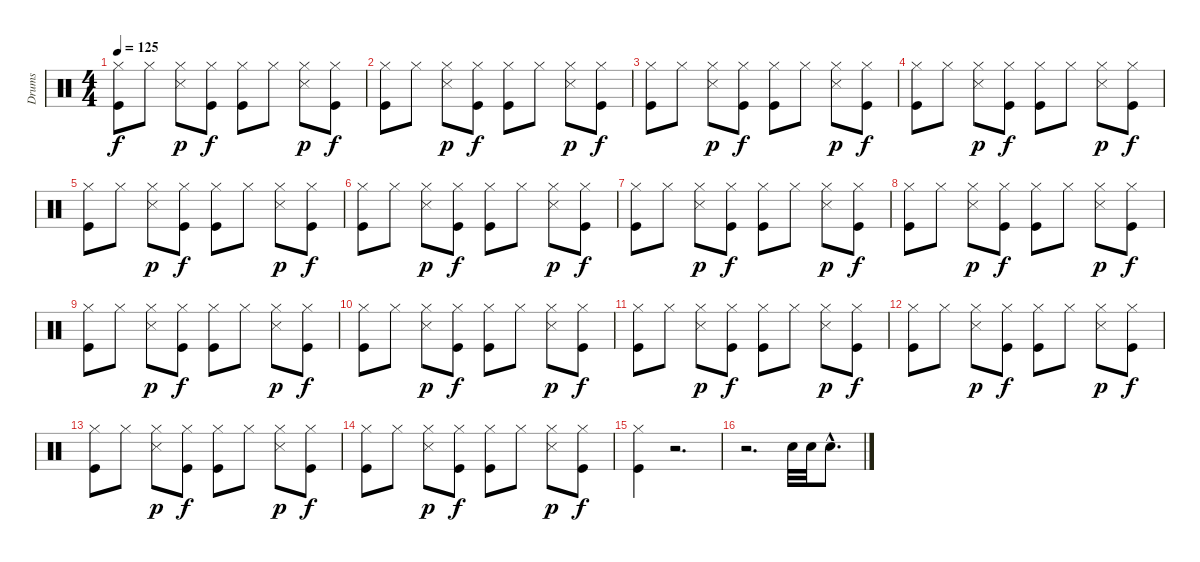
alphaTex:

\track ("Drums" "Drums") {instrument percussion}
\staff {score}
\articulation defaults
\ts (4 4)
\tempo 125
\clef neutral
\ks c
("Kick (hit)" "Hi-Hat (closed)").8{dy f} "Hi-Hat (closed)".8 ("Hi-Hat (closed)" "Snare (side stick) 3").8{dy p} ("Hi-Hat (closed)" "Kick (hit)").8{dy f} ("Hi-Hat (closed)" "Kick (hit)").8 "Hi-Hat (closed)".8 ("Hi-Hat (closed)" "Snare (side stick) 3").8{dy p} ("Hi-Hat (closed)" "Kick (hit)").8{dy f} |
("Kick (hit)" "Hi-Hat (closed)").8 "Hi-Hat (closed)".8 ("Hi-Hat (closed)" "Snare (side stick) 3").8{dy p} ("Hi-Hat (closed)" "Kick (hit)").8{dy f} ("Hi-Hat (closed)" "Kick (hit)").8 "Hi-Hat (closed)".8 ("Hi-Hat (closed)" "Snare (side stick) 3").8{dy p} ("Hi-Hat (closed)" "Kick (hit)").8{dy f} |
("Kick (hit)" "Hi-Hat (closed)").8 "Hi-Hat (closed)".8 ("Hi-Hat (closed)" "Snare (side stick) 3").8{dy p} ("Hi-Hat (closed)" "Kick (hit)").8{dy f} ("Hi-Hat (closed)" "Kick (hit)").8 "Hi-Hat (closed)".8 ("Hi-Hat (closed)" "Snare (side stick) 3").8{dy p} ("Hi-Hat (closed)" "Kick (hit)").8{dy f} |
("Kick (hit)" "Hi-Hat (closed)").8 "Hi-Hat (closed)".8 ("Hi-Hat (closed)" "Snare (side stick) 3").8{dy p} ("Hi-Hat (closed)" "Kick (hit)").8{dy f} ("Hi-Hat (closed)" "Kick (hit)").8 "Hi-Hat (closed)".8 ("Hi-Hat (closed)" "Snare (side stick) 3").8{dy p} ("Hi-Hat (closed)" "Kick (hit)").8{dy f} |
("Kick (hit)" "Hi-Hat (closed)").8 "Hi-Hat (closed)".8 ("Hi-Hat (closed)" "Snare (side stick) 3").8{dy p} ("Hi-Hat (closed)" "Kick (hit)").8{dy f} ("Hi-Hat (closed)" "Kick (hit)").8 "Hi-Hat (closed)".8 ("Hi-Hat (closed)" "Snare (side stick) 3").8{dy p} ("Hi-Hat (closed)" "Kick (hit)").8{dy f} |
("Kick (hit)" "Hi-Hat (closed)").8 "Hi-Hat (closed)".8 ("Hi-Hat (closed)" "Snare (side stick) 3").8{dy p} ("Hi-Hat (closed)" "Kick (hit)").8{dy f} ("Hi-Hat (closed)" "Kick (hit)").8 "Hi-Hat (closed)".8 ("Hi-Hat (closed)" "Snare (side stick) 3").8{dy p} ("Hi-Hat (closed)" "Kick (hit)").8{dy f} |
("Kick (hit)" "Hi-Hat (closed)").8 "Hi-Hat (closed)".8 ("Hi-Hat (closed)" "Snare (side stick) 3").8{dy p} ("Hi-Hat (closed)" "Kick (hit)").8{dy f} ("Hi-Hat (closed)" "Kick (hit)").8 "Hi-Hat (closed)".8 ("Hi-Hat (closed)" "Snare (side stick) 3").8{dy p} ("Hi-Hat (closed)" "Kick (hit)").8{dy f} |
("Kick (hit)" "Hi-Hat (closed)").8 "Hi-Hat (closed)".8 ("Hi-Hat (closed)" "Snare (side stick) 3").8{dy p} ("Hi-Hat (closed)" "Kick (hit)").8{dy f} ("Hi-Hat (closed)" "Kick (hit)").8 "Hi-Hat (closed)".8 ("Hi-Hat (closed)" "Snare (side stick) 3").8{dy p} ("Hi-Hat (closed)" "Kick (hit)").8{dy f} |
("Hi-Hat (closed)" "Kick (hit)").8 "Hi-Hat (closed)".8 ("Hi-Hat (closed)" "Snare (side stick) 3").8{dy p} ("Hi-Hat (closed)" "Kick (hit)").8{dy f} ("Hi-Hat (closed)" "Kick (hit)").8 "Hi-Hat (closed)".8 ("Hi-Hat (closed)" "Snare (side stick) 3").8{dy p} ("Hi-Hat (closed)" "Kick (hit)").8{dy f} |
("Hi-Hat (closed)" "Kick (hit)").8 "Hi-Hat (closed)".8 ("Hi-Hat (closed)" "Snare (side stick) 3").8{dy p} ("Hi-Hat (closed)" "Kick (hit)").8{dy f} ("Hi-Hat (closed)" "Kick (hit)").8 "Hi-Hat (closed)".8 ("Hi-Hat (closed)" "Snare (side stick) 3").8{dy p} ("Hi-Hat (closed)" "Kick (hit)").8{dy f} |
("Hi-Hat (closed)" "Kick (hit)").8 "Hi-Hat (closed)".8 ("Hi-Hat (closed)" "Snare (side stick) 3").8{dy p} ("Hi-Hat (closed)" "Kick (hit)").8{dy f} ("Hi-Hat (closed)" "Kick (hit)").8 "Hi-Hat (closed)".8 ("Hi-Hat (closed)" "Snare (side stick) 3").8{dy p} ("Hi-Hat (closed)" "Kick (hit)").8{dy f} |
("Hi-Hat (closed)" "Kick (hit)").8 "Hi-Hat (closed)".8 ("Hi-Hat (closed)" "Snare (side stick) 3").8{dy p} ("Hi-Hat (closed)" "Kick (hit)").8{dy f} ("Hi-Hat (closed)" "Kick (hit)").8 "Hi-Hat (closed)".8 ("Hi-Hat (closed)" "Snare (side stick) 3").8{dy p} ("Hi-Hat (closed)" "Kick (hit)").8{dy f} |
("Hi-Hat (closed)" "Kick (hit)").8 "Hi-Hat (closed)".8 ("Hi-Hat (closed)" "Snare (side stick) 3").8{dy p} ("Hi-Hat (closed)" "Kick (hit)").8{dy f} ("Hi-Hat (closed)" "Kick (hit)").8 "Hi-Hat (closed)".8 ("Hi-Hat (closed)" "Snare (side stick) 3").8{dy p} ("Hi-Hat (closed)" "Kick (hit)").8{dy f} |
("Hi-Hat (closed)" "Kick (hit)").8 "Hi-Hat (closed)".8 ("Hi-Hat (closed)" "Snare (side stick) 3").8{dy p} ("Hi-Hat (closed)" "Kick (hit)").8{dy f} ("Hi-Hat (closed)" "Kick (hit)").8 "Hi-Hat (closed)".8 ("Hi-Hat (closed)" "Snare (side stick) 3").8{dy p} ("Hi-Hat (closed)" "Kick (hit)").8{dy f} |
("Hi-Hat (closed)" "Kick (hit)").4 r.2{d} |
r.2{d} "Snare (hit) 2".32 "Snare (hit) 2".32 "Snare (hit) 2"{hac}.8{d}
